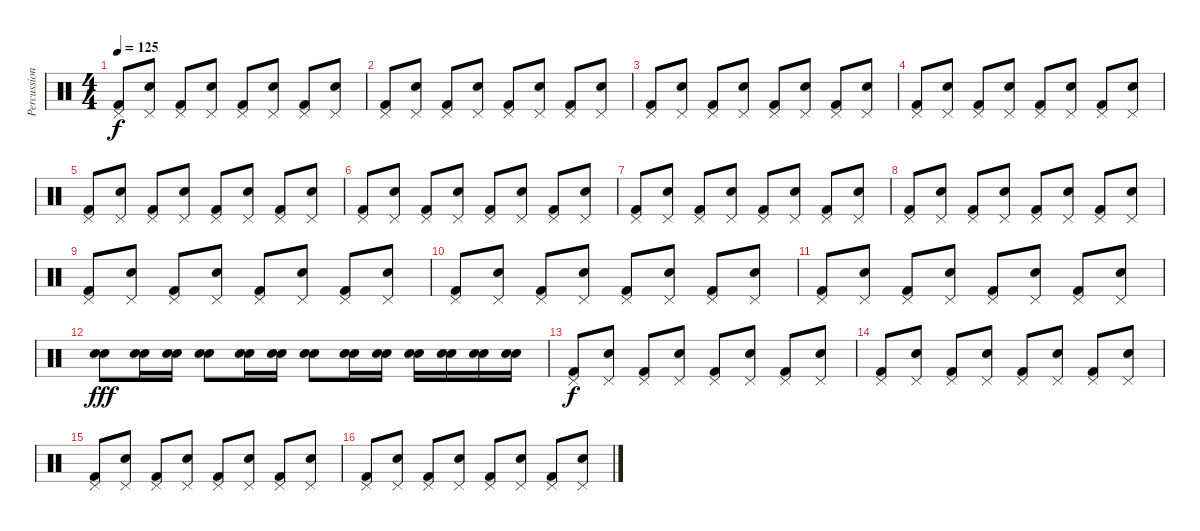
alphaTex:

\track ("Percussions" "Percussion") {instrument percussion}
\staff {score}
\articulation defaults
\ts (4 4)
\tempo 125
\clef neutral
\ks c
("Pedal Hi-Hat (hit)" "Kick (hit) 2").8{dy f} ("Pedal Hi-Hat (hit)" "Electric Snare (hit)").8 ("Pedal Hi-Hat (hit)" "Kick (hit) 2").8 ("Pedal Hi-Hat (hit)" "Electric Snare (hit)").8 ("Pedal Hi-Hat (hit)" "Kick (hit) 2").8 ("Pedal Hi-Hat (hit)" "Electric Snare (hit)").8 ("Pedal Hi-Hat (hit)" "Kick (hit) 2").8 ("Pedal Hi-Hat (hit)" "Electric Snare (hit)").8 |
("Pedal Hi-Hat (hit)" "Kick (hit) 2").8 ("Pedal Hi-Hat (hit)" "Electric Snare (hit)").8 ("Pedal Hi-Hat (hit)" "Kick (hit) 2").8 ("Pedal Hi-Hat (hit)" "Electric Snare (hit)").8 ("Pedal Hi-Hat (hit)" "Kick (hit) 2").8 ("Pedal Hi-Hat (hit)" "Electric Snare (hit)").8 ("Pedal Hi-Hat (hit)" "Kick (hit) 2").8 ("Pedal Hi-Hat (hit)" "Electric Snare (hit)").8 |
("Pedal Hi-Hat (hit)" "Kick (hit) 2").8 ("Pedal Hi-Hat (hit)" "Electric Snare (hit)").8 ("Pedal Hi-Hat (hit)" "Kick (hit) 2").8 ("Pedal Hi-Hat (hit)" "Electric Snare (hit)").8 ("Pedal Hi-Hat (hit)" "Kick (hit) 2").8 ("Pedal Hi-Hat (hit)" "Electric Snare (hit)").8 ("Pedal Hi-Hat (hit)" "Kick (hit) 2").8 ("Pedal Hi-Hat (hit)" "Electric Snare (hit)").8 |
("Pedal Hi-Hat (hit)" "Kick (hit) 2").8 ("Pedal Hi-Hat (hit)" "Electric Snare (hit)").8 ("Pedal Hi-Hat (hit)" "Kick (hit) 2").8 ("Pedal Hi-Hat (hit)" "Electric Snare (hit)").8 ("Pedal Hi-Hat (hit)" "Kick (hit) 2").8 ("Pedal Hi-Hat (hit)" "Electric Snare (hit)").8 ("Pedal Hi-Hat (hit)" "Kick (hit) 2").8 ("Pedal Hi-Hat (hit)" "Electric Snare (hit)").8 |
("Pedal Hi-Hat (hit)" "Kick (hit) 2").8 ("Pedal Hi-Hat (hit)" "Electric Snare (hit)").8 ("Pedal Hi-Hat (hit)" "Kick (hit) 2").8 ("Pedal Hi-Hat (hit)" "Electric Snare (hit)").8 ("Pedal Hi-Hat (hit)" "Kick (hit) 2").8 ("Pedal Hi-Hat (hit)" "Electric Snare (hit)").8 ("Pedal Hi-Hat (hit)" "Kick (hit) 2").8 ("Pedal Hi-Hat (hit)" "Electric Snare (hit)").8 |
("Pedal Hi-Hat (hit)" "Kick (hit) 2").8 ("Pedal Hi-Hat (hit)" "Electric Snare (hit)").8 ("Pedal Hi-Hat (hit)" "Kick (hit) 2").8 ("Pedal Hi-Hat (hit)" "Electric Snare (hit)").8 ("Pedal Hi-Hat (hit)" "Kick (hit) 2").8 ("Pedal Hi-Hat (hit)" "Electric Snare (hit)").8 ("Pedal Hi-Hat (hit)" "Kick (hit) 2").8 ("Pedal Hi-Hat (hit)" "Electric Snare (hit)").8 |
("Pedal Hi-Hat (hit)" "Kick (hit) 2").8 ("Pedal Hi-Hat (hit)" "Electric Snare (hit)").8 ("Pedal Hi-Hat (hit)" "Kick (hit) 2").8 ("Pedal Hi-Hat (hit)" "Electric Snare (hit)").8 ("Pedal Hi-Hat (hit)" "Kick (hit) 2").8 ("Pedal Hi-Hat (hit)" "Electric Snare (hit)").8 ("Pedal Hi-Hat (hit)" "Kick (hit) 2").8 ("Pedal Hi-Hat (hit)" "Electric Snare (hit)").8 |
("Pedal Hi-Hat (hit)" "Kick (hit) 2").8 ("Pedal Hi-Hat (hit)" "Electric Snare (hit)").8 ("Pedal Hi-Hat (hit)" "Kick (hit) 2").8 ("Pedal Hi-Hat (hit)" "Electric Snare (hit)").8 ("Pedal Hi-Hat (hit)" "Kick (hit) 2").8 ("Pedal Hi-Hat (hit)" "Electric Snare (hit)").8 ("Pedal Hi-Hat (hit)" "Kick (hit) 2").8 ("Pedal Hi-Hat (hit)" "Electric Snare (hit)").8 |
("Pedal Hi-Hat (hit)" "Kick (hit) 2").8 ("Pedal Hi-Hat (hit)" "Electric Snare (hit)").8 ("Pedal Hi-Hat (hit)" "Kick (hit) 2").8 ("Pedal Hi-Hat (hit)" "Electric Snare (hit)").8 ("Pedal Hi-Hat (hit)" "Kick (hit) 2").8 ("Pedal Hi-Hat (hit)" "Electric Snare (hit)").8 ("Pedal Hi-Hat (hit)" "Kick (hit) 2").8 ("Pedal Hi-Hat (hit)" "Electric Snare (hit)").8 |
("Pedal Hi-Hat (hit)" "Kick (hit) 2").8 ("Pedal Hi-Hat (hit)" "Electric Snare (hit)").8 ("Pedal Hi-Hat (hit)" "Kick (hit) 2").8 ("Pedal Hi-Hat (hit)" "Electric Snare (hit)").8 ("Pedal Hi-Hat (hit)" "Kick (hit) 2").8 ("Pedal Hi-Hat (hit)" "Electric Snare (hit)").8 ("Pedal Hi-Hat (hit)" "Kick (hit) 2").8 ("Pedal Hi-Hat (hit)" "Electric Snare (hit)").8 |
("Pedal Hi-Hat (hit)" "Kick (hit) 2").8 ("Pedal Hi-Hat (hit)" "Electric Snare (hit)").8 ("Pedal Hi-Hat (hit)" "Kick (hit) 2").8 ("Pedal Hi-Hat (hit)" "Electric Snare (hit)").8 ("Pedal Hi-Hat (hit)" "Kick (hit) 2").8 ("Pedal Hi-Hat (hit)" "Electric Snare (hit)").8 ("Pedal Hi-Hat (hit)" "Kick (hit) 2").8 ("Pedal Hi-Hat (hit)" "Electric Snare (hit)").8 |
("Snare (hit) 2" "Electric Snare (hit)").8{dy fff} ("Snare (hit) 2" "Electric Snare (hit)").16 ("Snare (hit) 2" "Electric Snare (hit)").16 ("Snare (hit) 2" "Electric Snare (hit)").8 ("Snare (hit) 2" "Electric Snare (hit)").16 ("Snare (hit) 2" "Electric Snare (hit)").16 ("Snare (hit) 2" "Electric Snare (hit)").8 ("Snare (hit) 2" "Electric Snare (hit)").16 ("Snare (hit) 2" "Electric Snare (hit)").16 ("Snare (hit) 2" "Electric Snare (hit)").16 ("Snare (hit) 2" "Electric Snare (hit)").16 ("Snare (hit) 2" "Electric Snare (hit)").16 ("Snare (hit) 2" "Electric Snare (hit)").16 |
("Pedal Hi-Hat (hit)" "Kick (hit) 2").8{dy f} ("Pedal Hi-Hat (hit)" "Electric Snare (hit)").8 ("Pedal Hi-Hat (hit)" "Kick (hit) 2").8 ("Pedal Hi-Hat (hit)" "Electric Snare (hit)").8 ("Pedal Hi-Hat (hit)" "Kick (hit) 2").8 ("Pedal Hi-Hat (hit)" "Electric Snare (hit)").8 ("Pedal Hi-Hat (hit)" "Kick (hit) 2").8 ("Pedal Hi-Hat (hit)" "Electric Snare (hit)").8 |
("Pedal Hi-Hat (hit)" "Kick (hit) 2").8 ("Pedal Hi-Hat (hit)" "Electric Snare (hit)").8 ("Pedal Hi-Hat (hit)" "Kick (hit) 2").8 ("Pedal Hi-Hat (hit)" "Electric Snare (hit)").8 ("Pedal Hi-Hat (hit)" "Kick (hit) 2").8 ("Pedal Hi-Hat (hit)" "Electric Snare (hit)").8 ("Pedal Hi-Hat (hit)" "Kick (hit) 2").8 ("Pedal Hi-Hat (hit)" "Electric Snare (hit)").8 |
("Pedal Hi-Hat (hit)" "Kick (hit) 2").8 ("Pedal Hi-Hat (hit)" "Electric Snare (hit)").8 ("Pedal Hi-Hat (hit)" "Kick (hit) 2").8 ("Pedal Hi-Hat (hit)" "Electric Snare (hit)").8 ("Pedal Hi-Hat (hit)" "Kick (hit) 2").8 ("Pedal Hi-Hat (hit)" "Electric Snare (hit)").8 ("Pedal Hi-Hat (hit)" "Kick (hit) 2").8 ("Pedal Hi-Hat (hit)" "Electric Snare (hit)").8 |
("Pedal Hi-Hat (hit)" "Kick (hit) 2").8 ("Pedal Hi-Hat (hit)" "Electric Snare (hit)").8 ("Pedal Hi-Hat (hit)" "Kick (hit) 2").8 ("Pedal Hi-Hat (hit)" "Electric Snare (hit)").8 ("Pedal Hi-Hat (hit)" "Kick (hit) 2").8 ("Pedal Hi-Hat (hit)" "Electric Snare (hit)").8 ("Pedal Hi-Hat (hit)" "Kick (hit) 2").8 ("Pedal Hi-Hat (hit)" "Electric Snare (hit)").8
